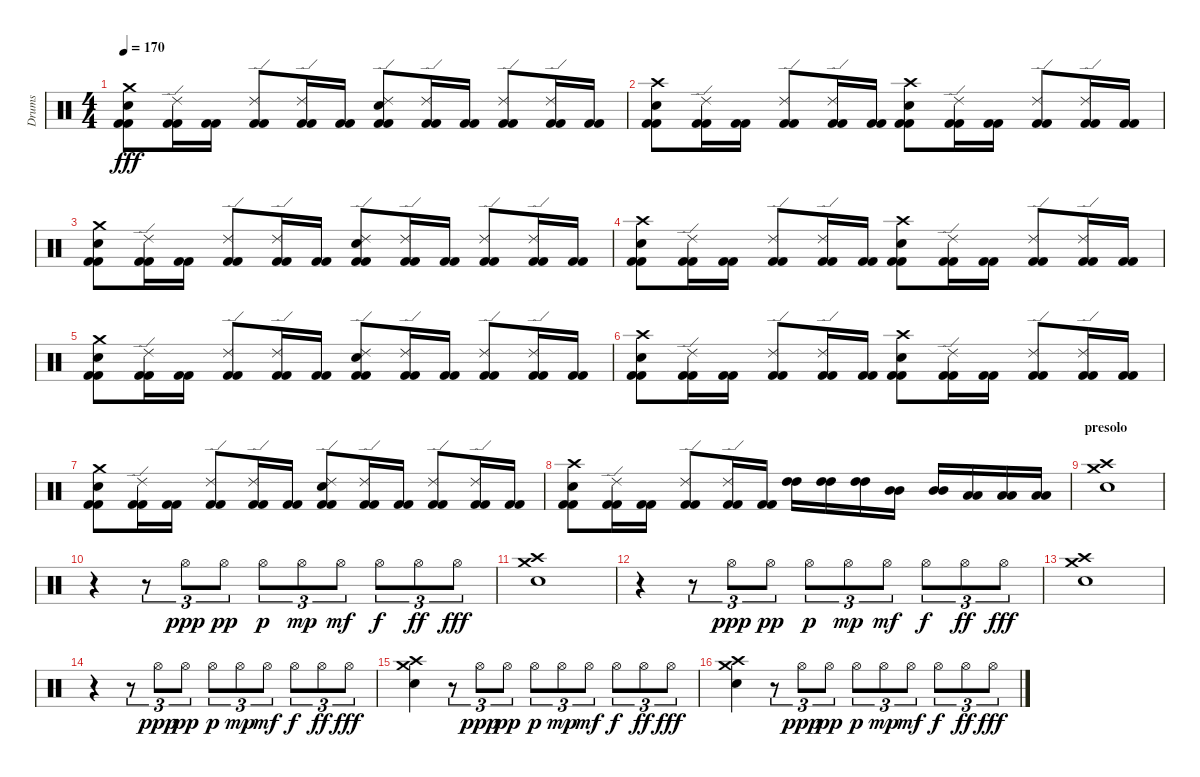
\track ("Drums" "Drums") {instrument percussion}
\staff {score}
\articulation defaults
\ts (4 4)
\tempo 170
\clef neutral
\ks c
("Crash medium (hit)" "Electric Snare (hit)" "Kick (hit) 2" "Kick (hit) 2").8{dy fff} ("Ride (edge) 2" "Kick (hit) 2" "Kick (hit) 2").16 ("Kick (hit) 2" "Kick (hit) 2").16 ("Ride (edge) 2" "Kick (hit) 2" "Kick (hit) 2").8 ("Ride (edge) 2" "Kick (hit) 2" "Kick (hit) 2").16 ("Kick (hit) 2" "Kick (hit) 2").16 ("Ride (edge) 2" "Electric Snare (hit)" "Kick (hit) 2" "Kick (hit) 2").8 ("Ride (edge) 2" "Kick (hit) 2" "Kick (hit) 2").16 ("Kick (hit) 2" "Kick (hit) 2").16 ("Ride (edge) 2" "Kick (hit) 2" "Kick (hit) 2").8 ("Ride (edge) 2" "Kick (hit) 2" "Kick (hit) 2").16 ("Kick (hit) 2" "Kick (hit) 2").16 |
("Crash high (hit)" "Electric Snare (hit)" "Kick (hit) 2" "Kick (hit) 2").8 ("Ride (edge) 2" "Kick (hit) 2" "Kick (hit) 2").16 ("Kick (hit) 2" "Kick (hit) 2").16 ("Ride (edge) 2" "Kick (hit) 2" "Kick (hit) 2").8 ("Ride (edge) 2" "Kick (hit) 2" "Kick (hit) 2").16 ("Kick (hit) 2" "Kick (hit) 2").16 ("Crash high (hit)" "Electric Snare (hit)" "Kick (hit) 2" "Kick (hit) 2").8 ("Ride (edge) 2" "Kick (hit) 2" "Kick (hit) 2").16 ("Kick (hit) 2" "Kick (hit) 2").16 ("Ride (edge) 2" "Kick (hit) 2" "Kick (hit) 2").8 ("Ride (edge) 2" "Kick (hit) 2" "Kick (hit) 2").16 ("Kick (hit) 2" "Kick (hit) 2").16 |
("Crash medium (hit)" "Electric Snare (hit)" "Kick (hit) 2" "Kick (hit) 2").8 ("Ride (edge) 2" "Kick (hit) 2" "Kick (hit) 2").16 ("Kick (hit) 2" "Kick (hit) 2").16 ("Ride (edge) 2" "Kick (hit) 2" "Kick (hit) 2").8 ("Ride (edge) 2" "Kick (hit) 2" "Kick (hit) 2").16 ("Kick (hit) 2" "Kick (hit) 2").16 ("Ride (edge) 2" "Electric Snare (hit)" "Kick (hit) 2" "Kick (hit) 2").8 ("Ride (edge) 2" "Kick (hit) 2" "Kick (hit) 2").16 ("Kick (hit) 2" "Kick (hit) 2").16 ("Ride (edge) 2" "Kick (hit) 2" "Kick (hit) 2").8 ("Ride (edge) 2" "Kick (hit) 2" "Kick (hit) 2").16 ("Kick (hit) 2" "Kick (hit) 2").16 |
("Crash high (hit)" "Electric Snare (hit)" "Kick (hit) 2" "Kick (hit) 2").8 ("Ride (edge) 2" "Kick (hit) 2" "Kick (hit) 2").16 ("Kick (hit) 2" "Kick (hit) 2").16 ("Ride (edge) 2" "Kick (hit) 2" "Kick (hit) 2").8 ("Ride (edge) 2" "Kick (hit) 2" "Kick (hit) 2").16 ("Kick (hit) 2" "Kick (hit) 2").16 ("Crash high (hit)" "Electric Snare (hit)" "Kick (hit) 2" "Kick (hit) 2").8 ("Ride (edge) 2" "Kick (hit) 2" "Kick (hit) 2").16 ("Kick (hit) 2" "Kick (hit) 2").16 ("Ride (edge) 2" "Kick (hit) 2" "Kick (hit) 2").8 ("Ride (edge) 2" "Kick (hit) 2" "Kick (hit) 2").16 ("Kick (hit) 2" "Kick (hit) 2").16 |
("Crash medium (hit)" "Electric Snare (hit)" "Kick (hit) 2" "Kick (hit) 2").8 ("Ride (edge) 2" "Kick (hit) 2" "Kick (hit) 2").16 ("Kick (hit) 2" "Kick (hit) 2").16 ("Ride (edge) 2" "Kick (hit) 2" "Kick (hit) 2").8 ("Ride (edge) 2" "Kick (hit) 2" "Kick (hit) 2").16 ("Kick (hit) 2" "Kick (hit) 2").16 ("Ride (edge) 2" "Electric Snare (hit)" "Kick (hit) 2" "Kick (hit) 2").8 ("Ride (edge) 2" "Kick (hit) 2" "Kick (hit) 2").16 ("Kick (hit) 2" "Kick (hit) 2").16 ("Ride (edge) 2" "Kick (hit) 2" "Kick (hit) 2").8 ("Ride (edge) 2" "Kick (hit) 2" "Kick (hit) 2").16 ("Kick (hit) 2" "Kick (hit) 2").16 |
("Crash high (hit)" "Electric Snare (hit)" "Kick (hit) 2" "Kick (hit) 2").8 ("Ride (edge) 2" "Kick (hit) 2" "Kick (hit) 2").16 ("Kick (hit) 2" "Kick (hit) 2").16 ("Ride (edge) 2" "Kick (hit) 2" "Kick (hit) 2").8 ("Ride (edge) 2" "Kick (hit) 2" "Kick (hit) 2").16 ("Kick (hit) 2" "Kick (hit) 2").16 ("Crash high (hit)" "Electric Snare (hit)" "Kick (hit) 2" "Kick (hit) 2").8 ("Ride (edge) 2" "Kick (hit) 2" "Kick (hit) 2").16 ("Kick (hit) 2" "Kick (hit) 2").16 ("Ride (edge) 2" "Kick (hit) 2" "Kick (hit) 2").8 ("Ride (edge) 2" "Kick (hit) 2" "Kick (hit) 2").16 ("Kick (hit) 2" "Kick (hit) 2").16 |
("Crash medium (hit)" "Electric Snare (hit)" "Kick (hit) 2" "Kick (hit) 2").8 ("Ride (edge) 2" "Kick (hit) 2" "Kick (hit) 2").16 ("Kick (hit) 2" "Kick (hit) 2").16 ("Ride (edge) 2" "Kick (hit) 2" "Kick (hit) 2").8 ("Ride (edge) 2" "Kick (hit) 2" "Kick (hit) 2").16 ("Kick (hit) 2" "Kick (hit) 2").16 ("Ride (edge) 2" "Electric Snare (hit)" "Kick (hit) 2" "Kick (hit) 2").8 ("Ride (edge) 2" "Kick (hit) 2" "Kick (hit) 2").16 ("Kick (hit) 2" "Kick (hit) 2").16 ("Ride (edge) 2" "Kick (hit) 2" "Kick (hit) 2").8 ("Ride (edge) 2" "Kick (hit) 2" "Kick (hit) 2").16 ("Kick (hit) 2" "Kick (hit) 2").16 |
("Crash high (hit)" "Electric Snare (hit)" "Kick (hit) 2" "Kick (hit) 2").8 ("Ride (edge) 2" "Kick (hit) 2" "Kick (hit) 2").16 ("Kick (hit) 2" "Kick (hit) 2").16 ("Ride (edge) 2" "Kick (hit) 2" "Kick (hit) 2").8 ("Ride (edge) 2" "Kick (hit) 2" "Kick (hit) 2").16 ("Kick (hit) 2" "Kick (hit) 2").16 ("High Tom (hit)" "High Tom (hit)").16 ("High Tom (hit)" "High Tom (hit)").16 ("High Tom (hit)" "High Tom (hit)").16 ("Mid Tom (hit)" "Mid Tom (hit)").16 ("Mid Tom (hit)" "Mid Tom (hit)").16 ("Low Tom (hit)" "Low Tom (hit)").16 ("Low Tom (hit)" "Low Tom (hit)").16 ("Low Tom (hit)" "Low Tom (hit)").16 |
\section ("" "presolo")
("Crash high (hit)" "Crash medium (hit)" "Electric Snare (hit)").1 |
r.4 r.8{tu (3 2)} "Hi-Hat (open)".8{tu (3 2) dy ppp} "Hi-Hat (open)".8{tu (3 2) dy pp} "Hi-Hat (open)".8{tu (3 2) dy p} "Hi-Hat (open)".8{tu (3 2) dy mp} "Hi-Hat (open)".8{tu (3 2) dy mf} "Hi-Hat (open)".8{tu (3 2) dy f} "Hi-Hat (open)".8{tu (3 2) dy ff} "Hi-Hat (open)".8{tu (3 2) dy fff} |
("Crash high (hit)" "Crash medium (hit)" "Electric Snare (hit)").1 |
r.4 r.8{tu (3 2)} "Hi-Hat (open)".8{tu (3 2) dy ppp} "Hi-Hat (open)".8{tu (3 2) dy pp} "Hi-Hat (open)".8{tu (3 2) dy p} "Hi-Hat (open)".8{tu (3 2) dy mp} "Hi-Hat (open)".8{tu (3 2) dy mf} "Hi-Hat (open)".8{tu (3 2) dy f} "Hi-Hat (open)".8{tu (3 2) dy ff} "Hi-Hat (open)".8{tu (3 2) dy fff} |
("Crash high (hit)" "Crash medium (hit)" "Electric Snare (hit)").1 |
r.4 r.8{tu (3 2)} "Hi-Hat (open)".8{tu (3 2) dy ppp} "Hi-Hat (open)".8{tu (3 2) dy pp} "Hi-Hat (open)".8{tu (3 2) dy p} "Hi-Hat (open)".8{tu (3 2) dy mp} "Hi-Hat (open)".8{tu (3 2) dy mf} "Hi-Hat (open)".8{tu (3 2) dy f} "Hi-Hat (open)".8{tu (3 2) dy ff} "Hi-Hat (open)".8{tu (3 2) dy fff} |
("Crash high (hit)" "Crash medium (hit)" "Electric Snare (hit)").4 r.8{tu (3 2)} "Hi-Hat (open)".8{tu (3 2) dy ppp} "Hi-Hat (open)".8{tu (3 2) dy pp} "Hi-Hat (open)".8{tu (3 2) dy p} "Hi-Hat (open)".8{tu (3 2) dy mp} "Hi-Hat (open)".8{tu (3 2) dy mf} "Hi-Hat (open)".8{tu (3 2) dy f} "Hi-Hat (open)".8{tu (3 2) dy ff} "Hi-Hat (open)".8{tu (3 2) dy fff} |
("Crash high (hit)" "Crash medium (hit)" "Electric Snare (hit)").4 r.8{tu (3 2)} "Hi-Hat (open)".8{tu (3 2) dy ppp} "Hi-Hat (open)".8{tu (3 2) dy pp} "Hi-Hat (open)".8{tu (3 2) dy p} "Hi-Hat (open)".8{tu (3 2) dy mp} "Hi-Hat (open)".8{tu (3 2) dy mf} "Hi-Hat (open)".8{tu (3 2) dy f} "Hi-Hat (open)".8{tu (3 2) dy ff} "Hi-Hat (open)".8{tu (3 2) dy fff}
